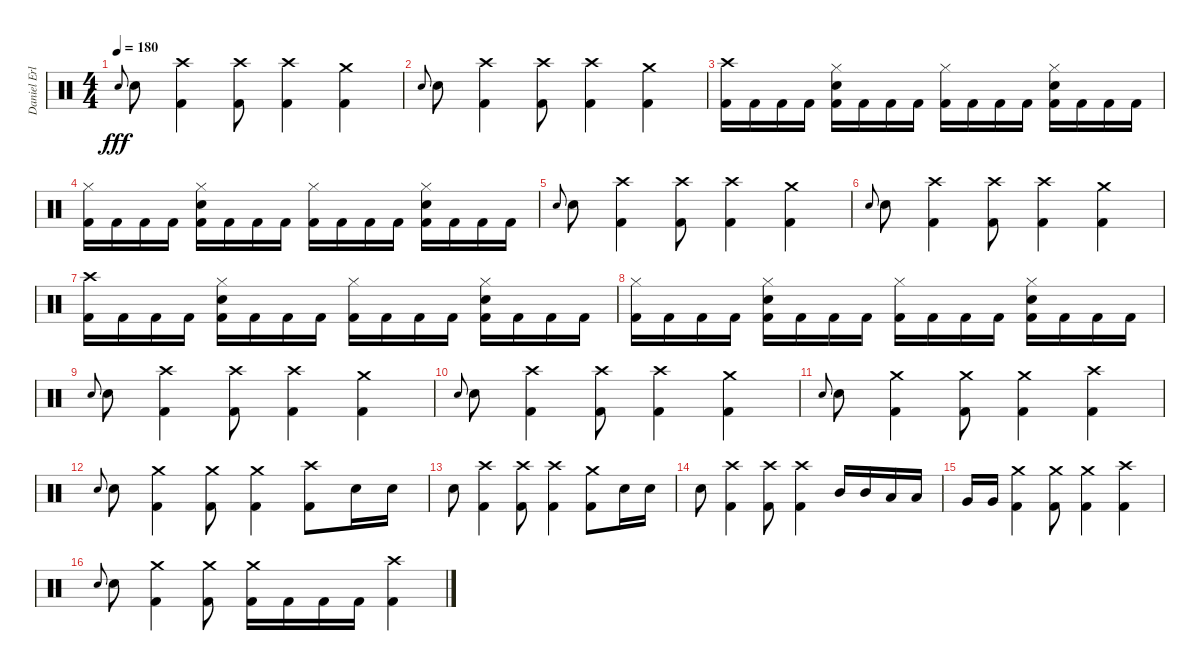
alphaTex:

\track ("Daniel Erlandsson" "Daniel Erl") {instrument percussion}
\staff {score}
\articulation defaults
\ts (4 4)
\tempo 180
\clef neutral
\ks c "Electric Snare (hit)".8{gr onbeat dy fff} "Electric Snare (hit)".8
("Crash high (hit)" "Kick (hit) 2").4 ("Crash high (hit)" "Kick (hit) 2").8 ("Crash high (hit)" "Kick (hit) 2").4 ("Crash medium (hit)" "Kick (hit) 2").4 |
"Electric Snare (hit)".8{gr onbeat} "Electric Snare (hit)".8 ("Crash high (hit)" "Kick (hit) 2").4 ("Crash high (hit)" "Kick (hit) 2").8 ("Crash high (hit)" "Kick (hit) 2").4 ("Crash medium (hit)" "Kick (hit) 2").4 |
("Crash high (hit)" "Kick (hit) 2").16 "Kick (hit) 2".16 "Kick (hit) 2".16 "Kick (hit) 2".16 ("Hi-Hat (closed)" "Electric Snare (hit)" "Kick (hit) 2").16 "Kick (hit) 2".16 "Kick (hit) 2".16 "Kick (hit) 2".16 ("Hi-Hat (closed)" "Kick (hit) 2").16 "Kick (hit) 2".16 "Kick (hit) 2".16 "Kick (hit) 2".16 ("Hi-Hat (closed)" "Electric Snare (hit)" "Kick (hit) 2").16 "Kick (hit) 2".16 "Kick (hit) 2".16 "Kick (hit) 2".16 |
("Hi-Hat (closed)" "Kick (hit) 2").16 "Kick (hit) 2".16 "Kick (hit) 2".16 "Kick (hit) 2".16 ("Hi-Hat (closed)" "Electric Snare (hit)" "Kick (hit) 2").16 "Kick (hit) 2".16 "Kick (hit) 2".16 "Kick (hit) 2".16 ("Hi-Hat (closed)" "Kick (hit) 2").16 "Kick (hit) 2".16 "Kick (hit) 2".16 "Kick (hit) 2".16 ("Hi-Hat (closed)" "Electric Snare (hit)" "Kick (hit) 2").16 "Kick (hit) 2".16 "Kick (hit) 2".16 "Kick (hit) 2".16 |
"Electric Snare (hit)".8{gr onbeat} "Electric Snare (hit)".8 ("Crash high (hit)" "Kick (hit) 2").4 ("Crash high (hit)" "Kick (hit) 2").8 ("Crash high (hit)" "Kick (hit) 2").4 ("Crash medium (hit)" "Kick (hit) 2").4 |
"Electric Snare (hit)".8{gr onbeat} "Electric Snare (hit)".8 ("Crash high (hit)" "Kick (hit) 2").4 ("Crash high (hit)" "Kick (hit) 2").8 ("Crash high (hit)" "Kick (hit) 2").4 ("Crash medium (hit)" "Kick (hit) 2").4 |
("Crash high (hit)" "Kick (hit) 2").16 "Kick (hit) 2".16 "Kick (hit) 2".16 "Kick (hit) 2".16 ("Hi-Hat (closed)" "Electric Snare (hit)" "Kick (hit) 2").16 "Kick (hit) 2".16 "Kick (hit) 2".16 "Kick (hit) 2".16 ("Hi-Hat (closed)" "Kick (hit) 2").16 "Kick (hit) 2".16 "Kick (hit) 2".16 "Kick (hit) 2".16 ("Hi-Hat (closed)" "Electric Snare (hit)" "Kick (hit) 2").16 "Kick (hit) 2".16 "Kick (hit) 2".16 "Kick (hit) 2".16 |
("Hi-Hat (closed)" "Kick (hit) 2").16 "Kick (hit) 2".16 "Kick (hit) 2".16 "Kick (hit) 2".16 ("Hi-Hat (closed)" "Electric Snare (hit)" "Kick (hit) 2").16 "Kick (hit) 2".16 "Kick (hit) 2".16 "Kick (hit) 2".16 ("Hi-Hat (closed)" "Kick (hit) 2").16 "Kick (hit) 2".16 "Kick (hit) 2".16 "Kick (hit) 2".16 ("Hi-Hat (closed)" "Electric Snare (hit)" "Kick (hit) 2").16 "Kick (hit) 2".16 "Kick (hit) 2".16 "Kick (hit) 2".16 |
"Electric Snare (hit)".8{gr onbeat} "Electric Snare (hit)".8 ("Crash high (hit)" "Kick (hit) 2").4 ("Crash high (hit)" "Kick (hit) 2").8 ("Crash high (hit)" "Kick (hit) 2").4 ("Crash medium (hit)" "Kick (hit) 2").4 |
"Electric Snare (hit)".8{gr onbeat} "Electric Snare (hit)".8 ("Crash high (hit)" "Kick (hit) 2").4 ("Crash high (hit)" "Kick (hit) 2").8 ("Crash high (hit)" "Kick (hit) 2").4 ("Crash medium (hit)" "Kick (hit) 2").4 |
"Electric Snare (hit)".8{gr onbeat} "Electric Snare (hit)".8 ("Crash medium (hit)" "Kick (hit) 2").4 ("Crash medium (hit)" "Kick (hit) 2").8 ("Crash medium (hit)" "Kick (hit) 2").4 ("Crash high (hit)" "Kick (hit) 2").4 |
"Electric Snare (hit)".8{gr onbeat} "Electric Snare (hit)".8 ("Crash medium (hit)" "Kick (hit) 2").4 ("Crash medium (hit)" "Kick (hit) 2").8 ("Crash medium (hit)" "Kick (hit) 2").4 ("Crash high (hit)" "Kick (hit) 2").8 "Electric Snare (hit)".16 "Electric Snare (hit)".16 |
"Electric Snare (hit)".8 ("Crash high (hit)" "Kick (hit) 2").4 ("Crash high (hit)" "Kick (hit) 2").8 ("Crash high (hit)" "Kick (hit) 2").4 ("Crash medium (hit)" "Kick (hit) 2").8 "Electric Snare (hit)".16 "Electric Snare (hit)".16 |
"Electric Snare (hit)".8 ("Crash high (hit)" "Kick (hit) 2").4 ("Crash high (hit)" "Kick (hit) 2").8 ("Crash high (hit)" "Kick (hit) 2").4 "Mid Tom (hit)".16 "Mid Tom (hit)".16 "Low Tom (hit)".16 "Low Tom (hit)".16 |
"Very Low Tom (hit)".16 "Very Low Tom (hit)".16 ("Crash medium (hit)" "Kick (hit) 2").4 ("Crash medium (hit)" "Kick (hit) 2").8 ("Crash medium (hit)" "Kick (hit) 2").4 ("Crash high (hit)" "Kick (hit) 2").4 |
"Electric Snare (hit)".8{gr onbeat} "Electric Snare (hit)".8 ("Crash medium (hit)" "Kick (hit) 2").4 ("Crash medium (hit)" "Kick (hit) 2").8 ("Crash medium (hit)" "Kick (hit) 2").16 "Kick (hit) 2".16 "Kick (hit) 2".16 "Kick (hit) 2".16 ("Crash high (hit)" "Kick (hit) 2").4
